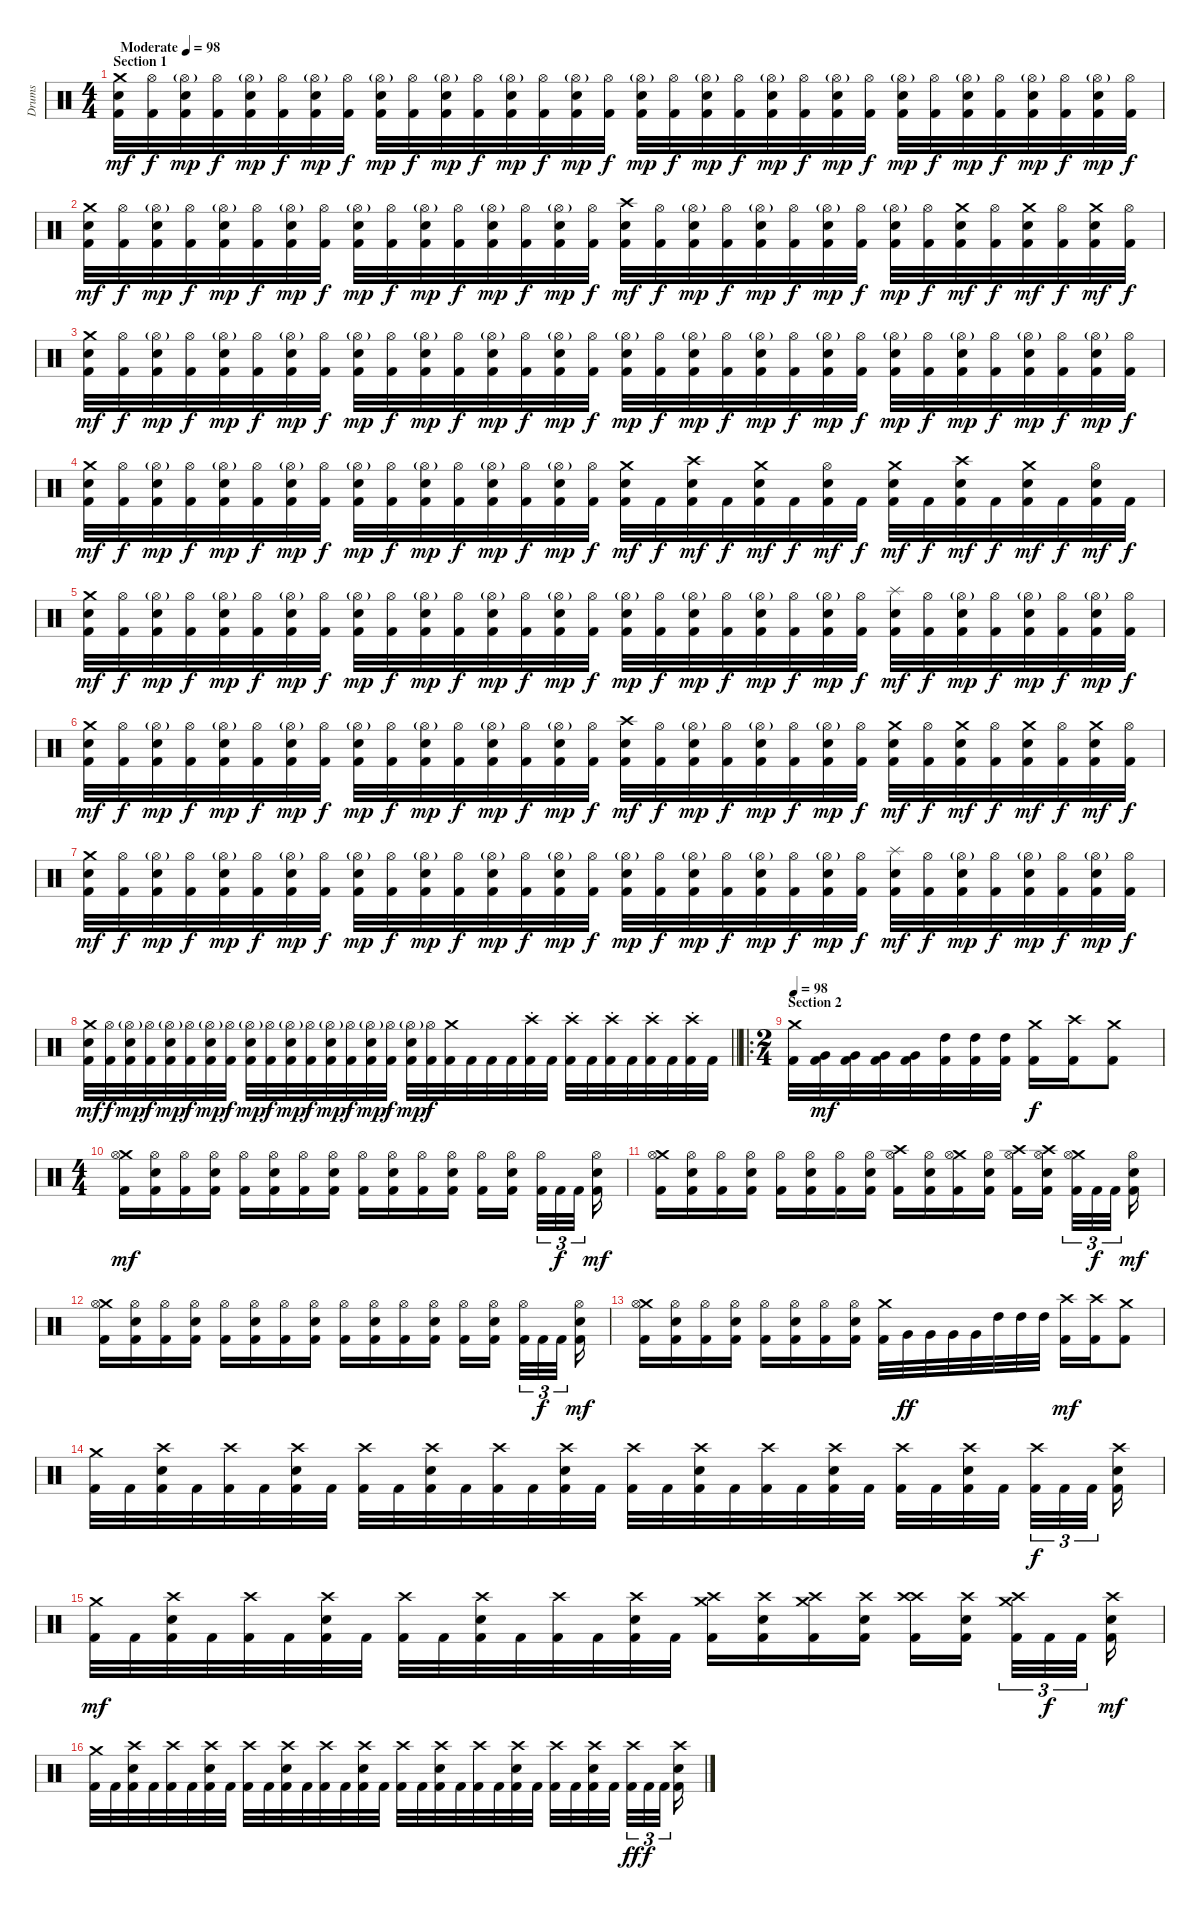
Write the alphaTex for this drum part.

\track ("Drums" "Drums") {instrument percussion}
\staff {score}
\articulation defaults
\ts (4 4)
\section ("" "Section 1")
\tempo (98 "Moderate")
\clef neutral
\ks c
("Crash medium (hit)" "Snare (hit) 2" "Kick (hit) 2").32{dy mf} ("Hi-Hat (open)" "Kick (hit) 2").32{dy f} ("Snare (hit) 2" "Hi-Hat (open)"{g} "Kick (hit) 2").32{dy mp} ("Hi-Hat (open)" "Kick (hit) 2").32{dy f} ("Snare (hit) 2" "Hi-Hat (open)"{g} "Kick (hit) 2").32{dy mp} ("Hi-Hat (open)" "Kick (hit) 2").32{dy f} ("Snare (hit) 2" "Hi-Hat (open)"{g} "Kick (hit) 2").32{dy mp} ("Hi-Hat (open)" "Kick (hit) 2").32{dy f} ("Snare (hit) 2" "Hi-Hat (open)"{g} "Kick (hit) 2").32{dy mp} ("Hi-Hat (open)" "Kick (hit) 2").32{dy f} ("Snare (hit) 2" "Hi-Hat (open)"{g} "Kick (hit) 2").32{dy mp} ("Hi-Hat (open)" "Kick (hit) 2").32{dy f} ("Snare (hit) 2" "Hi-Hat (open)"{g} "Kick (hit) 2").32{dy mp} ("Hi-Hat (open)" "Kick (hit) 2").32{dy f} ("Snare (hit) 2" "Hi-Hat (open)"{g} "Kick (hit) 2").32{dy mp} ("Hi-Hat (open)" "Kick (hit) 2").32{dy f} ("Snare (hit) 2" "Hi-Hat (open)"{g} "Kick (hit) 2").32{dy mp} ("Hi-Hat (open)" "Kick (hit) 2").32{dy f} ("Snare (hit) 2" "Hi-Hat (open)"{g} "Kick (hit) 2").32{dy mp} ("Hi-Hat (open)" "Kick (hit) 2").32{dy f} ("Snare (hit) 2" "Hi-Hat (open)"{g} "Kick (hit) 2").32{dy mp} ("Hi-Hat (open)" "Kick (hit) 2").32{dy f} ("Snare (hit) 2" "Hi-Hat (open)"{g} "Kick (hit) 2").32{dy mp} ("Hi-Hat (open)" "Kick (hit) 2").32{dy f} ("Snare (hit) 2" "Hi-Hat (open)"{g} "Kick (hit) 2").32{dy mp} ("Hi-Hat (open)" "Kick (hit) 2").32{dy f} ("Snare (hit) 2" "Hi-Hat (open)"{g} "Kick (hit) 2").32{dy mp} ("Hi-Hat (open)" "Kick (hit) 2").32{dy f} ("Snare (hit) 2" "Hi-Hat (open)"{g} "Kick (hit) 2").32{dy mp} ("Hi-Hat (open)" "Kick (hit) 2").32{dy f} ("Snare (hit) 2" "Hi-Hat (open)"{g} "Kick (hit) 2").32{dy mp} ("Hi-Hat (open)" "Kick (hit) 2").32{dy f} |
("Crash medium (hit)" "Snare (hit) 2" "Kick (hit) 2").32{dy mf} ("Hi-Hat (open)" "Kick (hit) 2").32{dy f} ("Snare (hit) 2" "Hi-Hat (open)"{g} "Kick (hit) 2").32{dy mp} ("Hi-Hat (open)" "Kick (hit) 2").32{dy f} ("Snare (hit) 2" "Hi-Hat (open)"{g} "Kick (hit) 2").32{dy mp} ("Hi-Hat (open)" "Kick (hit) 2").32{dy f} ("Snare (hit) 2" "Hi-Hat (open)"{g} "Kick (hit) 2").32{dy mp} ("Hi-Hat (open)" "Kick (hit) 2").32{dy f} ("Snare (hit) 2" "Hi-Hat (open)"{g} "Kick (hit) 2").32{dy mp} ("Hi-Hat (open)" "Kick (hit) 2").32{dy f} ("Snare (hit) 2" "Hi-Hat (open)"{g} "Kick (hit) 2").32{dy mp} ("Hi-Hat (open)" "Kick (hit) 2").32{dy f} ("Snare (hit) 2" "Hi-Hat (open)"{g} "Kick (hit) 2").32{dy mp} ("Hi-Hat (open)" "Kick (hit) 2").32{dy f} ("Snare (hit) 2" "Hi-Hat (open)"{g} "Kick (hit) 2").32{dy mp} ("Hi-Hat (open)" "Kick (hit) 2").32{dy f} ("Crash high (hit)" "Snare (hit) 2" "Kick (hit) 2").32{dy mf} ("Hi-Hat (open)" "Kick (hit) 2").32{dy f} ("Snare (hit) 2" "Hi-Hat (open)"{g} "Kick (hit) 2").32{dy mp} ("Hi-Hat (open)" "Kick (hit) 2").32{dy f} ("Snare (hit) 2" "Hi-Hat (open)"{g} "Kick (hit) 2").32{dy mp} ("Hi-Hat (open)" "Kick (hit) 2").32{dy f} ("Snare (hit) 2" "Hi-Hat (open)"{g} "Kick (hit) 2").32{dy mp} ("Hi-Hat (open)" "Kick (hit) 2").32{dy f} ("Snare (hit) 2" "Hi-Hat (open)"{g} "Kick (hit) 2").32{dy mp} ("Hi-Hat (open)" "Kick (hit) 2").32{dy f} ("Snare (hit) 2" "Crash medium (hit)" "Kick (hit) 2").32{dy mf} ("Hi-Hat (open)" "Kick (hit) 2").32{dy f} ("Snare (hit) 2" "Crash medium (hit)" "Kick (hit) 2").32{dy mf} ("Hi-Hat (open)" "Kick (hit) 2").32{dy f} ("Snare (hit) 2" "Crash medium (hit)" "Kick (hit) 2").32{dy mf} ("Hi-Hat (open)" "Kick (hit) 2").32{dy f} |
("Crash medium (hit)" "Snare (hit) 2" "Kick (hit) 2").32{dy mf} ("Hi-Hat (open)" "Kick (hit) 2").32{dy f} ("Snare (hit) 2" "Hi-Hat (open)"{g} "Kick (hit) 2").32{dy mp} ("Hi-Hat (open)" "Kick (hit) 2").32{dy f} ("Snare (hit) 2" "Hi-Hat (open)"{g} "Kick (hit) 2").32{dy mp} ("Hi-Hat (open)" "Kick (hit) 2").32{dy f} ("Snare (hit) 2" "Hi-Hat (open)"{g} "Kick (hit) 2").32{dy mp} ("Hi-Hat (open)" "Kick (hit) 2").32{dy f} ("Snare (hit) 2" "Hi-Hat (open)"{g} "Kick (hit) 2").32{dy mp} ("Hi-Hat (open)" "Kick (hit) 2").32{dy f} ("Snare (hit) 2" "Hi-Hat (open)"{g} "Kick (hit) 2").32{dy mp} ("Hi-Hat (open)" "Kick (hit) 2").32{dy f} ("Snare (hit) 2" "Hi-Hat (open)"{g} "Kick (hit) 2").32{dy mp} ("Hi-Hat (open)" "Kick (hit) 2").32{dy f} ("Snare (hit) 2" "Hi-Hat (open)"{g} "Kick (hit) 2").32{dy mp} ("Hi-Hat (open)" "Kick (hit) 2").32{dy f} ("Snare (hit) 2" "Hi-Hat (open)"{g} "Kick (hit) 2").32{dy mp} ("Hi-Hat (open)" "Kick (hit) 2").32{dy f} ("Snare (hit) 2" "Hi-Hat (open)"{g} "Kick (hit) 2").32{dy mp} ("Hi-Hat (open)" "Kick (hit) 2").32{dy f} ("Snare (hit) 2" "Hi-Hat (open)"{g} "Kick (hit) 2").32{dy mp} ("Hi-Hat (open)" "Kick (hit) 2").32{dy f} ("Snare (hit) 2" "Hi-Hat (open)"{g} "Kick (hit) 2").32{dy mp} ("Hi-Hat (open)" "Kick (hit) 2").32{dy f} ("Snare (hit) 2" "Hi-Hat (open)"{g} "Kick (hit) 2").32{dy mp} ("Hi-Hat (open)" "Kick (hit) 2").32{dy f} ("Snare (hit) 2" "Hi-Hat (open)"{g} "Kick (hit) 2").32{dy mp} ("Hi-Hat (open)" "Kick (hit) 2").32{dy f} ("Snare (hit) 2" "Hi-Hat (open)"{g} "Kick (hit) 2").32{dy mp} ("Hi-Hat (open)" "Kick (hit) 2").32{dy f} ("Snare (hit) 2" "Hi-Hat (open)"{g} "Kick (hit) 2").32{dy mp} ("Hi-Hat (open)" "Kick (hit) 2").32{dy f} |
("Crash medium (hit)" "Snare (hit) 2" "Kick (hit) 2").32{dy mf} ("Hi-Hat (open)" "Kick (hit) 2").32{dy f} ("Snare (hit) 2" "Hi-Hat (open)"{g} "Kick (hit) 2").32{dy mp} ("Hi-Hat (open)" "Kick (hit) 2").32{dy f} ("Snare (hit) 2" "Hi-Hat (open)"{g} "Kick (hit) 2").32{dy mp} ("Hi-Hat (open)" "Kick (hit) 2").32{dy f} ("Snare (hit) 2" "Hi-Hat (open)"{g} "Kick (hit) 2").32{dy mp} ("Hi-Hat (open)" "Kick (hit) 2").32{dy f} ("Snare (hit) 2" "Hi-Hat (open)"{g} "Kick (hit) 2").32{dy mp} ("Hi-Hat (open)" "Kick (hit) 2").32{dy f} ("Snare (hit) 2" "Hi-Hat (open)"{g} "Kick (hit) 2").32{dy mp} ("Hi-Hat (open)" "Kick (hit) 2").32{dy f} ("Snare (hit) 2" "Hi-Hat (open)"{g} "Kick (hit) 2").32{dy mp} ("Hi-Hat (open)" "Kick (hit) 2").32{dy f} ("Snare (hit) 2" "Hi-Hat (open)"{g} "Kick (hit) 2").32{dy mp} ("Hi-Hat (open)" "Kick (hit) 2").32{dy f} ("Crash medium (hit)" "Snare (hit) 2" "Kick (hit) 2").32{dy mf} "Kick (hit) 2".32{dy f} ("Crash high (hit)" "Snare (hit) 2" "Kick (hit) 2").32{dy mf} "Kick (hit) 2".32{dy f} ("Crash medium (hit)" "Snare (hit) 2" "Kick (hit) 2").32{dy mf} "Kick (hit) 2".32{dy f} ("Snare (hit) 2" "Hi-Hat (open)" "Kick (hit) 2").32{dy mf} "Kick (hit) 2".32{dy f} ("Crash medium (hit)" "Snare (hit) 2" "Kick (hit) 2").32{dy mf} "Kick (hit) 2".32{dy f} ("Crash high (hit)" "Snare (hit) 2" "Kick (hit) 2").32{dy mf} "Kick (hit) 2".32{dy f} ("Crash medium (hit)" "Snare (hit) 2" "Kick (hit) 2").32{dy mf} "Kick (hit) 2".32{dy f} ("Snare (hit) 2" "Hi-Hat (open)" "Kick (hit) 2").32{dy mf} "Kick (hit) 2".32{dy f} |
("Crash medium (hit)" "Snare (hit) 2" "Kick (hit) 2").32{dy mf} ("Hi-Hat (open)" "Kick (hit) 2").32{dy f} ("Snare (hit) 2" "Hi-Hat (open)"{g} "Kick (hit) 2").32{dy mp} ("Hi-Hat (open)" "Kick (hit) 2").32{dy f} ("Snare (hit) 2" "Hi-Hat (open)"{g} "Kick (hit) 2").32{dy mp} ("Hi-Hat (open)" "Kick (hit) 2").32{dy f} ("Snare (hit) 2" "Hi-Hat (open)"{g} "Kick (hit) 2").32{dy mp} ("Hi-Hat (open)" "Kick (hit) 2").32{dy f} ("Snare (hit) 2" "Hi-Hat (open)"{g} "Kick (hit) 2").32{dy mp} ("Hi-Hat (open)" "Kick (hit) 2").32{dy f} ("Snare (hit) 2" "Hi-Hat (open)"{g} "Kick (hit) 2").32{dy mp} ("Hi-Hat (open)" "Kick (hit) 2").32{dy f} ("Snare (hit) 2" "Hi-Hat (open)"{g} "Kick (hit) 2").32{dy mp} ("Hi-Hat (open)" "Kick (hit) 2").32{dy f} ("Snare (hit) 2" "Hi-Hat (open)"{g} "Kick (hit) 2").32{dy mp} ("Hi-Hat (open)" "Kick (hit) 2").32{dy f} ("Snare (hit) 2" "Hi-Hat (open)"{g} "Kick (hit) 2").32{dy mp} ("Hi-Hat (open)" "Kick (hit) 2").32{dy f} ("Snare (hit) 2" "Hi-Hat (open)"{g} "Kick (hit) 2").32{dy mp} ("Hi-Hat (open)" "Kick (hit) 2").32{dy f} ("Snare (hit) 2" "Hi-Hat (open)"{g} "Kick (hit) 2").32{dy mp} ("Hi-Hat (open)" "Kick (hit) 2").32{dy f} ("Snare (hit) 2" "Hi-Hat (open)"{g} "Kick (hit) 2").32{dy mp} ("Hi-Hat (open)" "Kick (hit) 2").32{dy f} ("Snare (hit) 2" "Splash (hit)" "Kick (hit) 2").32{dy mf} ("Hi-Hat (open)" "Kick (hit) 2").32{dy f} ("Snare (hit) 2" "Hi-Hat (open)"{g} "Kick (hit) 2").32{dy mp} ("Hi-Hat (open)" "Kick (hit) 2").32{dy f} ("Snare (hit) 2" "Hi-Hat (open)"{g} "Kick (hit) 2").32{dy mp} ("Hi-Hat (open)" "Kick (hit) 2").32{dy f} ("Snare (hit) 2" "Hi-Hat (open)"{g} "Kick (hit) 2").32{dy mp} ("Hi-Hat (open)" "Kick (hit) 2").32{dy f} |
("Crash medium (hit)" "Snare (hit) 2" "Kick (hit) 2").32{dy mf} ("Hi-Hat (open)" "Kick (hit) 2").32{dy f} ("Snare (hit) 2" "Hi-Hat (open)"{g} "Kick (hit) 2").32{dy mp} ("Hi-Hat (open)" "Kick (hit) 2").32{dy f} ("Snare (hit) 2" "Hi-Hat (open)"{g} "Kick (hit) 2").32{dy mp} ("Hi-Hat (open)" "Kick (hit) 2").32{dy f} ("Snare (hit) 2" "Hi-Hat (open)"{g} "Kick (hit) 2").32{dy mp} ("Hi-Hat (open)" "Kick (hit) 2").32{dy f} ("Snare (hit) 2" "Hi-Hat (open)"{g} "Kick (hit) 2").32{dy mp} ("Hi-Hat (open)" "Kick (hit) 2").32{dy f} ("Snare (hit) 2" "Hi-Hat (open)"{g} "Kick (hit) 2").32{dy mp} ("Hi-Hat (open)" "Kick (hit) 2").32{dy f} ("Snare (hit) 2" "Hi-Hat (open)"{g} "Kick (hit) 2").32{dy mp} ("Hi-Hat (open)" "Kick (hit) 2").32{dy f} ("Snare (hit) 2" "Hi-Hat (open)"{g} "Kick (hit) 2").32{dy mp} ("Hi-Hat (open)" "Kick (hit) 2").32{dy f} ("Crash high (hit)" "Snare (hit) 2" "Kick (hit) 2").32{dy mf} ("Hi-Hat (open)" "Kick (hit) 2").32{dy f} ("Snare (hit) 2" "Hi-Hat (open)"{g} "Kick (hit) 2").32{dy mp} ("Hi-Hat (open)" "Kick (hit) 2").32{dy f} ("Snare (hit) 2" "Hi-Hat (open)"{g} "Kick (hit) 2").32{dy mp} ("Hi-Hat (open)" "Kick (hit) 2").32{dy f} ("Snare (hit) 2" "Hi-Hat (open)"{g} "Kick (hit) 2").32{dy mp} ("Hi-Hat (open)" "Kick (hit) 2").32{dy f} ("Snare (hit) 2" "Crash medium (hit)" "Kick (hit) 2").32{dy mf} ("Hi-Hat (open)" "Kick (hit) 2").32{dy f} ("Snare (hit) 2" "Crash medium (hit)" "Kick (hit) 2").32{dy mf} ("Hi-Hat (open)" "Kick (hit) 2").32{dy f} ("Snare (hit) 2" "Crash medium (hit)" "Kick (hit) 2").32{dy mf} ("Hi-Hat (open)" "Kick (hit) 2").32{dy f} ("Snare (hit) 2" "Crash medium (hit)" "Kick (hit) 2").32{dy mf} ("Hi-Hat (open)" "Kick (hit) 2").32{dy f} |
("Crash medium (hit)" "Snare (hit) 2" "Kick (hit) 2").32{dy mf} ("Hi-Hat (open)" "Kick (hit) 2").32{dy f} ("Snare (hit) 2" "Hi-Hat (open)"{g} "Kick (hit) 2").32{dy mp} ("Hi-Hat (open)" "Kick (hit) 2").32{dy f} ("Snare (hit) 2" "Hi-Hat (open)"{g} "Kick (hit) 2").32{dy mp} ("Hi-Hat (open)" "Kick (hit) 2").32{dy f} ("Snare (hit) 2" "Hi-Hat (open)"{g} "Kick (hit) 2").32{dy mp} ("Hi-Hat (open)" "Kick (hit) 2").32{dy f} ("Snare (hit) 2" "Hi-Hat (open)"{g} "Kick (hit) 2").32{dy mp} ("Hi-Hat (open)" "Kick (hit) 2").32{dy f} ("Snare (hit) 2" "Hi-Hat (open)"{g} "Kick (hit) 2").32{dy mp} ("Hi-Hat (open)" "Kick (hit) 2").32{dy f} ("Snare (hit) 2" "Hi-Hat (open)"{g} "Kick (hit) 2").32{dy mp} ("Hi-Hat (open)" "Kick (hit) 2").32{dy f} ("Snare (hit) 2" "Hi-Hat (open)"{g} "Kick (hit) 2").32{dy mp} ("Hi-Hat (open)" "Kick (hit) 2").32{dy f} ("Snare (hit) 2" "Hi-Hat (open)"{g} "Kick (hit) 2").32{dy mp} ("Hi-Hat (open)" "Kick (hit) 2").32{dy f} ("Snare (hit) 2" "Hi-Hat (open)"{g} "Kick (hit) 2").32{dy mp} ("Hi-Hat (open)" "Kick (hit) 2").32{dy f} ("Snare (hit) 2" "Hi-Hat (open)"{g} "Kick (hit) 2").32{dy mp} ("Hi-Hat (open)" "Kick (hit) 2").32{dy f} ("Snare (hit) 2" "Hi-Hat (open)"{g} "Kick (hit) 2").32{dy mp} ("Hi-Hat (open)" "Kick (hit) 2").32{dy f} ("Snare (hit) 2" "Splash (hit)" "Kick (hit) 2").32{dy mf} ("Hi-Hat (open)" "Kick (hit) 2").32{dy f} ("Snare (hit) 2" "Hi-Hat (open)"{g} "Kick (hit) 2").32{dy mp} ("Hi-Hat (open)" "Kick (hit) 2").32{dy f} ("Snare (hit) 2" "Hi-Hat (open)"{g} "Kick (hit) 2").32{dy mp} ("Hi-Hat (open)" "Kick (hit) 2").32{dy f} ("Snare (hit) 2" "Hi-Hat (open)"{g} "Kick (hit) 2").32{dy mp} ("Hi-Hat (open)" "Kick (hit) 2").32{dy f} |
\barLineRight lightlight
("Crash medium (hit)" "Snare (hit) 2" "Kick (hit) 2").32{dy mf} ("Hi-Hat (open)" "Kick (hit) 2").32{dy f} ("Snare (hit) 2" "Hi-Hat (open)"{g} "Kick (hit) 2").32{dy mp} ("Hi-Hat (open)" "Kick (hit) 2").32{dy f} ("Snare (hit) 2" "Hi-Hat (open)"{g} "Kick (hit) 2").32{dy mp} ("Hi-Hat (open)" "Kick (hit) 2").32{dy f} ("Snare (hit) 2" "Hi-Hat (open)"{g} "Kick (hit) 2").32{dy mp} ("Hi-Hat (open)" "Kick (hit) 2").32{dy f} ("Snare (hit) 2" "Hi-Hat (open)"{g} "Kick (hit) 2").32{dy mp} ("Hi-Hat (open)" "Kick (hit) 2").32{dy f} ("Snare (hit) 2" "Hi-Hat (open)"{g} "Kick (hit) 2").32{dy mp} ("Hi-Hat (open)" "Kick (hit) 2").32{dy f} ("Snare (hit) 2" "Hi-Hat (open)"{g} "Kick (hit) 2").32{dy mp} ("Hi-Hat (open)" "Kick (hit) 2").32{dy f} ("Snare (hit) 2" "Hi-Hat (open)"{g} "Kick (hit) 2").32{dy mp} ("Hi-Hat (open)" "Kick (hit) 2").32{dy f} ("Snare (hit) 2" "Hi-Hat (open)"{g} "Kick (hit) 2").32{dy mp} ("Hi-Hat (open)" "Kick (hit) 2").32{dy f} ("Crash medium (hit)" "Kick (hit) 2").32 "Kick (hit) 2".32 "Kick (hit) 2".32 "Kick (hit) 2".32 ("Crash high (hit)"{st} "Kick (hit) 2").32 "Kick (hit) 2".32 ("Crash high (hit)"{st} "Kick (hit) 2").32 "Kick (hit) 2".32 ("Crash high (hit)"{st} "Kick (hit) 2").32 "Kick (hit) 2".32 ("Crash high (hit)"{st} "Kick (hit) 2").32 "Kick (hit) 2".32 ("Crash high (hit)"{st} "Kick (hit) 2").32 "Kick (hit) 2".32 |
\ro
\ts (2 4)
\section ("" "Section 2")
\tempo 98
("Crash medium (hit)" "Kick (hit) 2").32 ("Very Low Tom (hit)" "Kick (hit) 2").32{dy mf} ("Very Low Tom (hit)" "Kick (hit) 2").32 ("Very Low Tom (hit)" "Kick (hit) 2").32 ("Very Low Tom (hit)" "Kick (hit) 2").32 ("High Tom (hit)" "Kick (hit) 2").32 ("High Tom (hit)" "Kick (hit) 2").32 ("High Tom (hit)" "Kick (hit) 2").32 ("Crash medium (hit)" "Kick (hit) 2").16{dy f} ("Crash high (hit)" "Kick (hit) 2").16 ("Crash medium (hit)" "Kick (hit) 2").8 |
\ts (4 4)
("Crash medium (hit)" "Hi-Hat (open)" "Kick (hit) 2").16{dy mf} ("Snare (hit) 2" "Hi-Hat (open)" "Kick (hit) 2").16 ("Hi-Hat (open)" "Kick (hit) 2").16 ("Snare (hit) 2" "Hi-Hat (open)" "Kick (hit) 2").16 ("Hi-Hat (open)" "Kick (hit) 2").16 ("Snare (hit) 2" "Hi-Hat (open)" "Kick (hit) 2").16 ("Hi-Hat (open)" "Kick (hit) 2").16 ("Snare (hit) 2" "Hi-Hat (open)" "Kick (hit) 2").16 ("Hi-Hat (open)" "Kick (hit) 2").16 ("Snare (hit) 2" "Hi-Hat (open)" "Kick (hit) 2").16 ("Hi-Hat (open)" "Kick (hit) 2").16 ("Snare (hit) 2" "Hi-Hat (open)" "Kick (hit) 2").16 ("Hi-Hat (open)" "Kick (hit) 2").16 ("Snare (hit) 2" "Hi-Hat (open)" "Kick (hit) 2").16{beam splitsecondary} ("Hi-Hat (open)" "Kick (hit) 2").32{tu (3 2)} "Kick (hit) 2".32{tu (3 2) dy f} "Kick (hit) 2".32{tu (3 2) beam splitsecondary} ("Snare (hit) 2" "Hi-Hat (open)" "Kick (hit) 2").16{dy mf} |
("Crash medium (hit)" "Hi-Hat (open)" "Kick (hit) 2").16 ("Snare (hit) 2" "Hi-Hat (open)" "Kick (hit) 2").16 ("Hi-Hat (open)" "Kick (hit) 2").16 ("Snare (hit) 2" "Hi-Hat (open)" "Kick (hit) 2").16 ("Hi-Hat (open)" "Kick (hit) 2").16 ("Snare (hit) 2" "Hi-Hat (open)" "Kick (hit) 2").16 ("Hi-Hat (open)" "Kick (hit) 2").16 ("Snare (hit) 2" "Hi-Hat (open)" "Kick (hit) 2").16 ("Crash high (hit)" "Hi-Hat (open)" "Kick (hit) 2").16 ("Snare (hit) 2" "Hi-Hat (open)" "Kick (hit) 2").16 ("Crash medium (hit)" "Hi-Hat (open)" "Kick (hit) 2").16 ("Snare (hit) 2" "Hi-Hat (open)" "Kick (hit) 2").16 ("Crash high (hit)" "Hi-Hat (open)" "Kick (hit) 2").16 ("Crash high (hit)" "Snare (hit) 2" "Hi-Hat (open)" "Kick (hit) 2").16{beam splitsecondary} ("Crash medium (hit)" "Hi-Hat (open)" "Kick (hit) 2").32{tu (3 2)} "Kick (hit) 2".32{tu (3 2) dy f} "Kick (hit) 2".32{tu (3 2) beam splitsecondary} ("Snare (hit) 2" "Hi-Hat (open)" "Kick (hit) 2").16{dy mf} |
("Crash medium (hit)" "Hi-Hat (open)" "Kick (hit) 2").16 ("Snare (hit) 2" "Hi-Hat (open)" "Kick (hit) 2").16 ("Hi-Hat (open)" "Kick (hit) 2").16 ("Snare (hit) 2" "Hi-Hat (open)" "Kick (hit) 2").16 ("Hi-Hat (open)" "Kick (hit) 2").16 ("Snare (hit) 2" "Hi-Hat (open)" "Kick (hit) 2").16 ("Hi-Hat (open)" "Kick (hit) 2").16 ("Snare (hit) 2" "Hi-Hat (open)" "Kick (hit) 2").16 ("Hi-Hat (open)" "Kick (hit) 2").16 ("Snare (hit) 2" "Hi-Hat (open)" "Kick (hit) 2").16 ("Hi-Hat (open)" "Kick (hit) 2").16 ("Snare (hit) 2" "Hi-Hat (open)" "Kick (hit) 2").16 ("Hi-Hat (open)" "Kick (hit) 2").16 ("Snare (hit) 2" "Hi-Hat (open)" "Kick (hit) 2").16{beam splitsecondary} ("Hi-Hat (open)" "Kick (hit) 2").32{tu (3 2)} "Kick (hit) 2".32{tu (3 2) dy f} "Kick (hit) 2".32{tu (3 2) beam splitsecondary} ("Snare (hit) 2" "Hi-Hat (open)" "Kick (hit) 2").16{dy mf} |
("Crash medium (hit)" "Hi-Hat (open)" "Kick (hit) 2").16 ("Snare (hit) 2" "Hi-Hat (open)" "Kick (hit) 2").16 ("Hi-Hat (open)" "Kick (hit) 2").16 ("Snare (hit) 2" "Hi-Hat (open)" "Kick (hit) 2").16 ("Hi-Hat (open)" "Kick (hit) 2").16 ("Snare (hit) 2" "Hi-Hat (open)" "Kick (hit) 2").16 ("Hi-Hat (open)" "Kick (hit) 2").16 ("Snare (hit) 2" "Hi-Hat (open)" "Kick (hit) 2").16 ("Crash medium (hit)" "Kick (hit) 2").32 "Very Low Tom (hit)".32{dy ff} "Very Low Tom (hit)".32 "Very Low Tom (hit)".32 "Very Low Tom (hit)".32 "High Tom (hit)".32 "High Tom (hit)".32 "High Tom (hit)".32 ("Crash high (hit)" "Kick (hit) 2").16{dy mf} ("Crash high (hit)" "Kick (hit) 2").16 ("Crash medium (hit)" "Kick (hit) 2").8 |
("Crash medium (hit)" "Kick (hit) 2").32 "Kick (hit) 2".32 ("Snare (hit) 2" "Crash high (hit)" "Kick (hit) 2").32 "Kick (hit) 2".32 ("Crash high (hit)" "Kick (hit) 2").32 "Kick (hit) 2".32 ("Snare (hit) 2" "Crash high (hit)" "Kick (hit) 2").32 "Kick (hit) 2".32 ("Crash high (hit)" "Kick (hit) 2").32 "Kick (hit) 2".32 ("Snare (hit) 2" "Crash high (hit)" "Kick (hit) 2").32 "Kick (hit) 2".32 ("Crash high (hit)" "Kick (hit) 2").32 "Kick (hit) 2".32 ("Snare (hit) 2" "Crash high (hit)" "Kick (hit) 2").32 "Kick (hit) 2".32 ("Crash high (hit)" "Kick (hit) 2").32 "Kick (hit) 2".32 ("Snare (hit) 2" "Crash high (hit)" "Kick (hit) 2").32 "Kick (hit) 2".32 ("Crash high (hit)" "Kick (hit) 2").32 "Kick (hit) 2".32 ("Snare (hit) 2" "Crash high (hit)" "Kick (hit) 2").32 "Kick (hit) 2".32 ("Crash high (hit)" "Kick (hit) 2").32 "Kick (hit) 2".32 ("Snare (hit) 2" "Crash high (hit)" "Kick (hit) 2").32 "Kick (hit) 2".32{beam splitsecondary} ("Crash high (hit)" "Kick (hit) 2").32{tu (3 2) dy f} "Kick (hit) 2".32{tu (3 2)} "Kick (hit) 2".32{tu (3 2) beam splitsecondary} ("Snare (hit) 2" "Crash high (hit)" "Kick (hit) 2").16 |
("Crash medium (hit)" "Kick (hit) 2").32{dy mf} "Kick (hit) 2".32 ("Snare (hit) 2" "Crash high (hit)" "Kick (hit) 2").32 "Kick (hit) 2".32 ("Crash high (hit)" "Kick (hit) 2").32 "Kick (hit) 2".32 ("Snare (hit) 2" "Crash high (hit)" "Kick (hit) 2").32 "Kick (hit) 2".32 ("Crash high (hit)" "Kick (hit) 2").32 "Kick (hit) 2".32 ("Snare (hit) 2" "Crash high (hit)" "Kick (hit) 2").32 "Kick (hit) 2".32 ("Crash high (hit)" "Kick (hit) 2").32 "Kick (hit) 2".32 ("Snare (hit) 2" "Crash high (hit)" "Kick (hit) 2").32 "Kick (hit) 2".32 ("Crash medium (hit)" "Crash high (hit)" "Kick (hit) 2").16 ("Snare (hit) 2" "Crash high (hit)" "Kick (hit) 2").16 ("Crash medium (hit)" "Crash high (hit)" "Kick (hit) 2").16 ("Snare (hit) 2" "Crash high (hit)" "Kick (hit) 2").16 ("Crash high (hit)" "Crash high (hit)" "Kick (hit) 2").16 ("Snare (hit) 2" "Crash high (hit)" "Kick (hit) 2").16{beam splitsecondary} ("Crash medium (hit)" "Crash high (hit)" "Kick (hit) 2").32{tu (3 2)} "Kick (hit) 2".32{tu (3 2) dy f} "Kick (hit) 2".32{tu (3 2) beam splitsecondary} ("Snare (hit) 2" "Crash high (hit)" "Kick (hit) 2").16{dy mf} |
("Crash medium (hit)" "Kick (hit) 2").32 "Kick (hit) 2".32 ("Snare (hit) 2" "Crash high (hit)" "Kick (hit) 2").32 "Kick (hit) 2".32 ("Crash high (hit)" "Kick (hit) 2").32 "Kick (hit) 2".32 ("Snare (hit) 2" "Crash high (hit)" "Kick (hit) 2").32 "Kick (hit) 2".32 ("Crash high (hit)" "Kick (hit) 2").32 "Kick (hit) 2".32 ("Snare (hit) 2" "Crash high (hit)" "Kick (hit) 2").32 "Kick (hit) 2".32 ("Crash high (hit)" "Kick (hit) 2").32 "Kick (hit) 2".32 ("Snare (hit) 2" "Crash high (hit)" "Kick (hit) 2").32 "Kick (hit) 2".32 ("Crash high (hit)" "Kick (hit) 2").32 "Kick (hit) 2".32 ("Snare (hit) 2" "Crash high (hit)" "Kick (hit) 2").32 "Kick (hit) 2".32 ("Crash high (hit)" "Kick (hit) 2").32 "Kick (hit) 2".32 ("Snare (hit) 2" "Crash high (hit)" "Kick (hit) 2").32 "Kick (hit) 2".32 ("Crash high (hit)" "Kick (hit) 2").32 "Kick (hit) 2".32 ("Snare (hit) 2" "Crash high (hit)" "Kick (hit) 2").32 "Kick (hit) 2".32{beam splitsecondary} ("Crash high (hit)" "Kick (hit) 2").32{tu (3 2) dy ff} "Kick (hit) 2".32{tu (3 2) dy f} "Kick (hit) 2".32{tu (3 2) beam splitsecondary} ("Snare (hit) 2" "Crash high (hit)" "Kick (hit) 2").16
